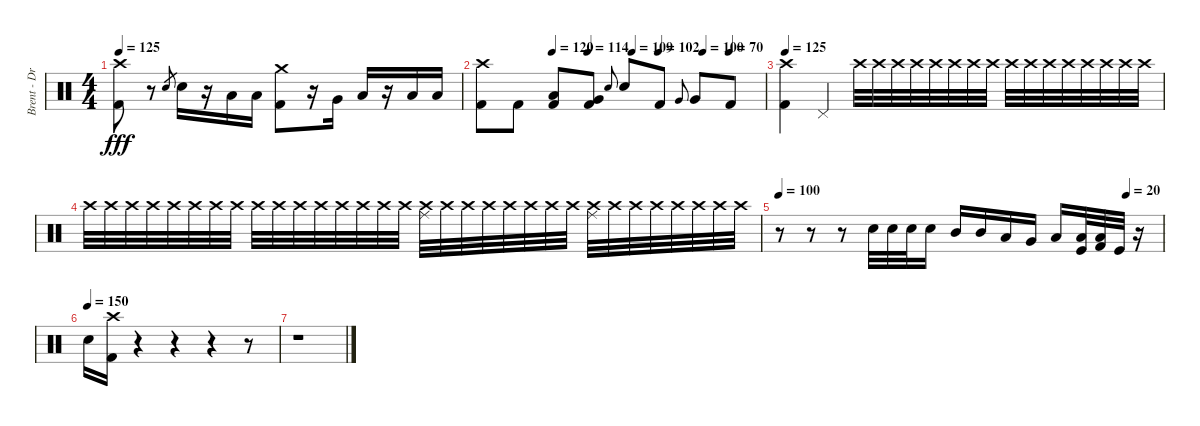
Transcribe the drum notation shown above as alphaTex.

\track ("Brent - Drums" "Brent - Dr") {instrument percussion}
\staff {score}
\articulation defaults
\ts (4 4)
\tempo 125
\clef neutral
\ks c
("Crash high (hit)" "Kick (hit) 2").8{dy fff} r.8 "Snare (hit) 2".8{gr} "Snare (hit) 2".16 r.16 "Low Tom (hit)".16 "Low Tom (hit)".16 ("Crash medium (hit)" "Kick (hit) 2").8 r.16 "Very Low Tom (hit)".16 "Low Tom (hit)".16 r.16 "Low Floor Tom (hit)".16 "Low Floor Tom (hit)".16 |
\tempo (120 0.25)
\tempo (114 0.375)
\tempo (109 0.53125)
\tempo (102 0.625)
\tempo (100 0.78125)
\tempo (70 0.875)
("Crash high (hit)" "Kick (hit) 2").8 "Kick (hit) 2".8 ("Low Tom (hit)" "Kick (hit) 2").8 ("Very Low Tom (hit)" "Kick (hit) 2").8 "Snare (hit) 2".8{gr onbeat} "Snare (hit) 2".8 "Kick (hit) 2".8 "Very Low Tom (hit)".8{gr onbeat} "Very Low Tom (hit)".8 "Kick (hit) 2".8 |
\tempo 125
("Crash high (hit)" "Kick (hit) 2").4 "Pedal Hi-Hat (hit)".4 "Crash high (hit)".32 "Crash high (hit)".32 "Crash high (hit)".32 "Crash high (hit)".32 "Crash high (hit)".32 "Crash high (hit)".32 "Crash high (hit)".32 "Crash high (hit)".32 "Crash high (hit)".32 "Crash high (hit)".32 "Crash high (hit)".32 "Crash high (hit)".32 "Crash high (hit)".32 "Crash high (hit)".32 "Crash high (hit)".32 "Crash high (hit)".32 |
"Crash high (hit)".32 "Crash high (hit)".32 "Crash high (hit)".32 "Crash high (hit)".32 "Crash high (hit)".32 "Crash high (hit)".32 "Crash high (hit)".32 "Crash high (hit)".32 "Crash high (hit)".32 "Crash high (hit)".32 "Crash high (hit)".32 "Crash high (hit)".32 "Crash high (hit)".32 "Crash high (hit)".32 "Crash high (hit)".32 "Crash high (hit)".32 ("Crash high (hit)" "Ride (middle)").32 "Crash high (hit)".32 "Crash high (hit)".32 "Crash high (hit)".32 "Crash high (hit)".32 "Crash high (hit)".32 "Crash high (hit)".32 "Crash high (hit)".32 ("Crash high (hit)" "Ride (middle)").32 "Crash high (hit)".32 "Crash high (hit)".32 "Crash high (hit)".32 "Crash high (hit)".32 "Crash high (hit)".32 "Crash high (hit)".32 "Crash high (hit)".32 |
\tempo 100
\tempo (20 0.90625)
r.8 r.8 r.8 "Snare (hit) 2".32 "Snare (hit) 2".32 "Snare (hit) 2".32 "Snare (hit) 2".16 "Mid Tom (hit)".16 "Mid Tom (hit)".16 "Low Tom (hit)".16 "Very Low Tom (hit)".16 "Low Floor Tom (hit)".16 ("Low Floor Tom (hit)" "Kick (hit)").32 ("Low Floor Tom (hit)" "Kick (hit) 2").32 "Kick (hit)".32 r.16 |
\tempo (150)
"Snare (hit) 2".16 ("Crash high (hit)" "Kick (hit) 2").16 r.4 r.4 r.4 r.8 |
r.1
